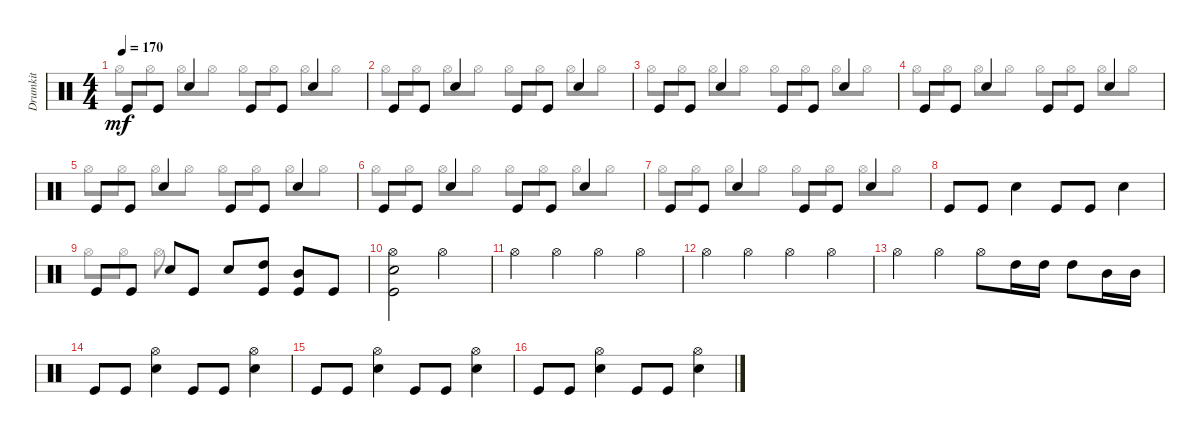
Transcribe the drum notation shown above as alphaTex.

\track ("Drumkit" "Drumkit") {instrument percussion}
\staff {score}
\articulation defaults
\voice
\ts (4 4)
\tempo 170
\clef neutral
\ks c "Kick (hit)".8{dy mf} "Kick (hit)".8 "Snare (hit) 2".4 "Kick (hit)".8 "Kick (hit)".8 "Snare (hit) 2".4
|
"Kick (hit)".8 "Kick (hit)".8 "Snare (hit) 2".4 "Kick (hit)".8 "Kick (hit)".8 "Snare (hit) 2".4 |
"Kick (hit)".8 "Kick (hit)".8 "Snare (hit) 2".4 "Kick (hit)".8 "Kick (hit)".8 "Snare (hit) 2".4 |
"Kick (hit)".8 "Kick (hit)".8 "Snare (hit) 2".4 "Kick (hit)".8 "Kick (hit)".8 "Snare (hit) 2".4 |
"Kick (hit)".8 "Kick (hit)".8 "Snare (hit) 2".4 "Kick (hit)".8 "Kick (hit)".8 "Snare (hit) 2".4 |
"Kick (hit)".8 "Kick (hit)".8 "Snare (hit) 2".4 "Kick (hit)".8 "Kick (hit)".8 "Snare (hit) 2".4 |
"Kick (hit)".8 "Kick (hit)".8 "Snare (hit) 2".4 "Kick (hit)".8 "Kick (hit)".8 "Snare (hit) 2".4 |
"Kick (hit)".8 "Kick (hit)".8 "Snare (hit) 2".4 "Kick (hit)".8 "Kick (hit)".8 "Snare (hit) 2".4 |
"Kick (hit)".8 "Kick (hit)".8 "Snare (hit) 2".8 "Kick (hit)".8 "Snare (hit) 2".8 ("High Tom (hit)" "Kick (hit)").8 ("Mid Tom (hit)" "Kick (hit)").8 "Kick (hit)".8 |
("Kick (hit)" "Snare (hit) 2" "Hi-Hat (open)").2 "Hi-Hat (open)".2 |
"Hi-Hat (open)".4 "Hi-Hat (open)".4 "Hi-Hat (open)".4 "Hi-Hat (open)".4 |
"Hi-Hat (open)".4 "Hi-Hat (open)".4 "Hi-Hat (open)".4 "Hi-Hat (open)".4 |
"Hi-Hat (open)".4 "Hi-Hat (open)".4 "Hi-Hat (open)".8 "High Tom (hit)".16 "High Tom (hit)".16 "High Tom (hit)".8 "Mid Tom (hit)".16 "Mid Tom (hit)".16 |
\section ("" "")
"Kick (hit)".8 "Kick (hit)".8 ("Snare (hit) 2" "Hi-Hat (open)").4 "Kick (hit)".8 "Kick (hit)".8 ("Snare (hit) 2" "Hi-Hat (open)").4 |
"Kick (hit)".8 "Kick (hit)".8 ("Snare (hit) 2" "Hi-Hat (open)").4 "Kick (hit)".8 "Kick (hit)".8 ("Snare (hit) 2" "Hi-Hat (open)").4 |
"Kick (hit)".8 "Kick (hit)".8 ("Snare (hit) 2" "Hi-Hat (open)").4 "Kick (hit)".8 "Kick (hit)".8 ("Snare (hit) 2" "Hi-Hat (open)").4
\voice
\clef neutral
\ottava regular
\simile none
\ks c "Hi-Hat (open)".8{dy mf} "Hi-Hat (open)".8 "Hi-Hat (open)".8 "Hi-Hat (open)".8 "Hi-Hat (open)".8 "Hi-Hat (open)".8 "Hi-Hat (open)".8 "Hi-Hat (open)".8
|
"Hi-Hat (open)".8 "Hi-Hat (open)".8 "Hi-Hat (open)".8 "Hi-Hat (open)".8 "Hi-Hat (open)".8 "Hi-Hat (open)".8 "Hi-Hat (open)".8 "Hi-Hat (open)".8 |
"Hi-Hat (open)".8 "Hi-Hat (open)".8 "Hi-Hat (open)".8 "Hi-Hat (open)".8 "Hi-Hat (open)".8 "Hi-Hat (open)".8 "Hi-Hat (open)".8 "Hi-Hat (open)".8 |
"Hi-Hat (open)".8 "Hi-Hat (open)".8 "Hi-Hat (open)".8 "Hi-Hat (open)".8 "Hi-Hat (open)".8 "Hi-Hat (open)".8 "Hi-Hat (open)".8 "Hi-Hat (open)".8 |
"Hi-Hat (open)".8 "Hi-Hat (open)".8 "Hi-Hat (open)".8 "Hi-Hat (open)".8 "Hi-Hat (open)".8 "Hi-Hat (open)".8 "Hi-Hat (open)".8 "Hi-Hat (open)".8 |
"Hi-Hat (open)".8 "Hi-Hat (open)".8 "Hi-Hat (open)".8 "Hi-Hat (open)".8 "Hi-Hat (open)".8 "Hi-Hat (open)".8 "Hi-Hat (open)".8 "Hi-Hat (open)".8 |
"Hi-Hat (open)".8 "Hi-Hat (open)".8 "Hi-Hat (open)".8 "Hi-Hat (open)".8 "Hi-Hat (open)".8 "Hi-Hat (open)".8 "Hi-Hat (open)".8 "Hi-Hat (open)".8 |
|
"Hi-Hat (open)".8 "Hi-Hat (open)".8 "Hi-Hat (open)".8 |
|
|
|
|
|
|
